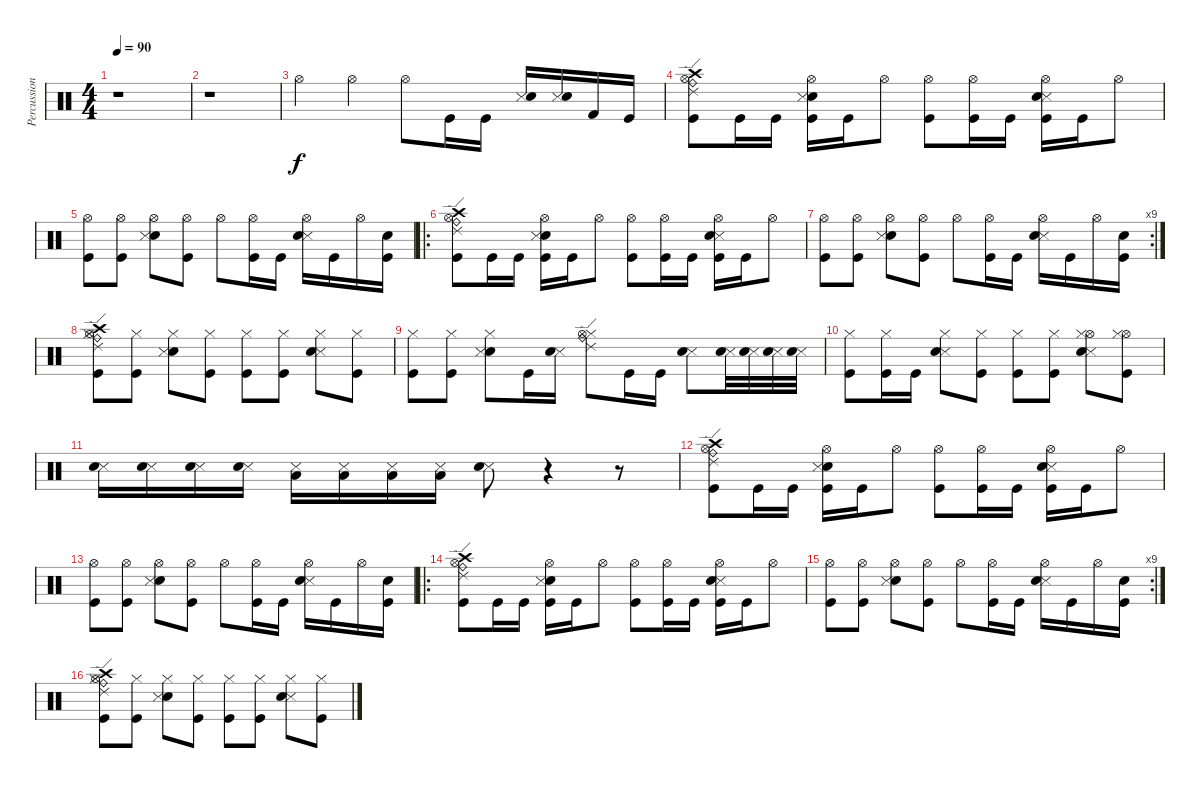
\track ("Percussion" "Percussion") {instrument percussion}
\staff {score}
\articulation defaults
\ts (4 4)
\tempo 90
\clef neutral
\ks c
r.1{dy f} |
r.1 |
"Hi-Hat (open)".4 "Hi-Hat (open)".4 "Hi-Hat (open)".8 "Kick (hit)".16 "Kick (hit)".16 ("Snare (side stick) 3" "Electric Snare (hit)").16 ("Snare (side stick) 3" "Electric Snare (hit)").16 "Kick (hit) 2".16 "Kick (hit)".16 |
("Crash high (hit)" "Ride (edge) 2" "Kick (hit)" "Hi-Hat (open)" "Ride (bell)").8 "Kick (hit)".16 "Kick (hit)".16 ("Electric Snare (hit)" "Snare (side stick) 3" "Kick (hit)" "Hi-Hat (open)").16 "Kick (hit)".16 "Hi-Hat (open)".8 ("Kick (hit)" "Hi-Hat (open)").8 ("Kick (hit)" "Hi-Hat (open)").16 "Kick (hit)".16 ("Snare (side stick) 3" "Electric Snare (hit)" "Kick (hit)" "Hi-Hat (open)").16 "Kick (hit)".16 "Hi-Hat (open)".8 |
("Kick (hit)" "Hi-Hat (open)").8 ("Kick (hit)" "Hi-Hat (open)").8 ("Electric Snare (hit)" "Snare (side stick) 3" "Hi-Hat (open)").8 ("Kick (hit)" "Hi-Hat (open)").8 "Hi-Hat (open)".8 ("Kick (hit)" "Hi-Hat (open)").16 "Kick (hit)".16 ("Snare (side stick) 3" "Electric Snare (hit)" "Hi-Hat (open)").16 "Kick (hit)".16 "Hi-Hat (open)".16 ("Kick (hit)" "Electric Snare (hit)").16 |
\ro
("Crash high (hit)" "Ride (edge) 2" "Kick (hit)" "Hi-Hat (open)" "Ride (bell)").8 "Kick (hit)".16 "Kick (hit)".16 ("Electric Snare (hit)" "Snare (side stick) 3" "Kick (hit)" "Hi-Hat (open)").16 "Kick (hit)".16 "Hi-Hat (open)".8 ("Kick (hit)" "Hi-Hat (open)").8 ("Kick (hit)" "Hi-Hat (open)").16 "Kick (hit)".16 ("Snare (side stick) 3" "Electric Snare (hit)" "Kick (hit)" "Hi-Hat (open)").16 "Kick (hit)".16 "Hi-Hat (open)".8 |
\rc 9
("Kick (hit)" "Hi-Hat (open)").8 ("Kick (hit)" "Hi-Hat (open)").8 ("Electric Snare (hit)" "Snare (side stick) 3" "Hi-Hat (open)").8 ("Kick (hit)" "Hi-Hat (open)").8 "Hi-Hat (open)".8 ("Kick (hit)" "Hi-Hat (open)").16 "Kick (hit)".16 ("Snare (side stick) 3" "Electric Snare (hit)" "Hi-Hat (open)").16 "Kick (hit)".16 "Hi-Hat (open)".16 ("Kick (hit)" "Electric Snare (hit)").16 |
("Kick (hit)" "Hi-Hat (closed)" "Hi-Hat (open)" "Crash high (hit)" "Ride (bell)" "Ride (edge) 2").8 ("Hi-Hat (closed)" "Kick (hit)").8 ("Hi-Hat (closed)" "Electric Snare (hit)" "Snare (side stick) 3").8 ("Hi-Hat (closed)" "Kick (hit)").8 ("Hi-Hat (closed)" "Kick (hit)").8 ("Kick (hit)" "Hi-Hat (closed)").8 ("Hi-Hat (closed)" "Snare (side stick) 3" "Electric Snare (hit)").8 ("Hi-Hat (closed)" "Kick (hit)").8 |
("Hi-Hat (closed)" "Kick (hit)").8 ("Hi-Hat (closed)" "Kick (hit)").8 ("Hi-Hat (closed)" "Electric Snare (hit)" "Snare (side stick) 3").8 "Kick (hit)".16 ("Snare (side stick) 3" "Electric Snare (hit)").16 ("Hi-Hat (closed)" "Hi-Hat (open)" "Ride (bell)" "Ride (edge) 2").8 "Kick (hit)".16 "Kick (hit)".16 ("Snare (side stick) 3" "Electric Snare (hit)").8 ("Snare (side stick) 3" "Electric Snare (hit)").32 ("Snare (side stick) 3" "Electric Snare (hit)").32 ("Snare (side stick) 3" "Electric Snare (hit)").32 ("Snare (side stick) 3" "Electric Snare (hit)").32 |
("Kick (hit)" "Hi-Hat (closed)").8 ("Kick (hit)" "Hi-Hat (closed)").16 "Kick (hit)".16 ("Snare (side stick) 3" "Electric Snare (hit)" "Hi-Hat (closed)").8 ("Kick (hit)" "Hi-Hat (closed)").8 ("Kick (hit)" "Hi-Hat (closed)").8 ("Kick (hit)" "Hi-Hat (closed)").8 ("Hi-Hat (open)" "Snare (side stick) 3" "Electric Snare (hit)" "Hi-Hat (closed)").8 ("Kick (hit)" "Hi-Hat (open)" "Hi-Hat (closed)").8 |
("Snare (side stick) 3" "Electric Snare (hit)").16 ("Snare (side stick) 3" "Electric Snare (hit)").16 ("Snare (side stick) 3" "Electric Snare (hit)").16 ("Snare (side stick) 3" "Electric Snare (hit)").16 ("Snare (side stick) 3" "Low Floor Tom (hit)").16 ("Snare (side stick) 3" "Low Floor Tom (hit)").16 ("Snare (side stick) 3" "Low Floor Tom (hit)").16 ("Snare (side stick) 3" "Low Floor Tom (hit)").16 ("Snare (side stick) 3" "Electric Snare (hit)").8 r.4 r.8 |
("Crash high (hit)" "Ride (edge) 2" "Kick (hit)" "Hi-Hat (open)" "Ride (bell)").8 "Kick (hit)".16 "Kick (hit)".16 ("Electric Snare (hit)" "Snare (side stick) 3" "Kick (hit)" "Hi-Hat (open)").16 "Kick (hit)".16 "Hi-Hat (open)".8 ("Kick (hit)" "Hi-Hat (open)").8 ("Kick (hit)" "Hi-Hat (open)").16 "Kick (hit)".16 ("Snare (side stick) 3" "Electric Snare (hit)" "Kick (hit)" "Hi-Hat (open)").16 "Kick (hit)".16 "Hi-Hat (open)".8 |
("Kick (hit)" "Hi-Hat (open)").8 ("Kick (hit)" "Hi-Hat (open)").8 ("Electric Snare (hit)" "Snare (side stick) 3" "Hi-Hat (open)").8 ("Kick (hit)" "Hi-Hat (open)").8 "Hi-Hat (open)".8 ("Kick (hit)" "Hi-Hat (open)").16 "Kick (hit)".16 ("Snare (side stick) 3" "Electric Snare (hit)" "Hi-Hat (open)").16 "Kick (hit)".16 "Hi-Hat (open)".16 ("Kick (hit)" "Electric Snare (hit)").16 |
\ro
("Crash high (hit)" "Ride (edge) 2" "Kick (hit)" "Hi-Hat (open)" "Ride (bell)").8 "Kick (hit)".16 "Kick (hit)".16 ("Electric Snare (hit)" "Snare (side stick) 3" "Kick (hit)" "Hi-Hat (open)").16 "Kick (hit)".16 "Hi-Hat (open)".8 ("Kick (hit)" "Hi-Hat (open)").8 ("Kick (hit)" "Hi-Hat (open)").16 "Kick (hit)".16 ("Snare (side stick) 3" "Electric Snare (hit)" "Kick (hit)" "Hi-Hat (open)").16 "Kick (hit)".16 "Hi-Hat (open)".8 |
\rc 9
("Kick (hit)" "Hi-Hat (open)").8 ("Kick (hit)" "Hi-Hat (open)").8 ("Electric Snare (hit)" "Snare (side stick) 3" "Hi-Hat (open)").8 ("Kick (hit)" "Hi-Hat (open)").8 "Hi-Hat (open)".8 ("Kick (hit)" "Hi-Hat (open)").16 "Kick (hit)".16 ("Snare (side stick) 3" "Electric Snare (hit)" "Hi-Hat (open)").16 "Kick (hit)".16 "Hi-Hat (open)".16 ("Kick (hit)" "Electric Snare (hit)").16 |
("Kick (hit)" "Hi-Hat (closed)" "Hi-Hat (open)" "Crash high (hit)" "Ride (bell)" "Ride (edge) 2").8 ("Hi-Hat (closed)" "Kick (hit)").8 ("Hi-Hat (closed)" "Electric Snare (hit)" "Snare (side stick) 3").8 ("Hi-Hat (closed)" "Kick (hit)").8 ("Hi-Hat (closed)" "Kick (hit)").8 ("Kick (hit)" "Hi-Hat (closed)").8 ("Hi-Hat (closed)" "Snare (side stick) 3" "Electric Snare (hit)").8 ("Hi-Hat (closed)" "Kick (hit)").8
